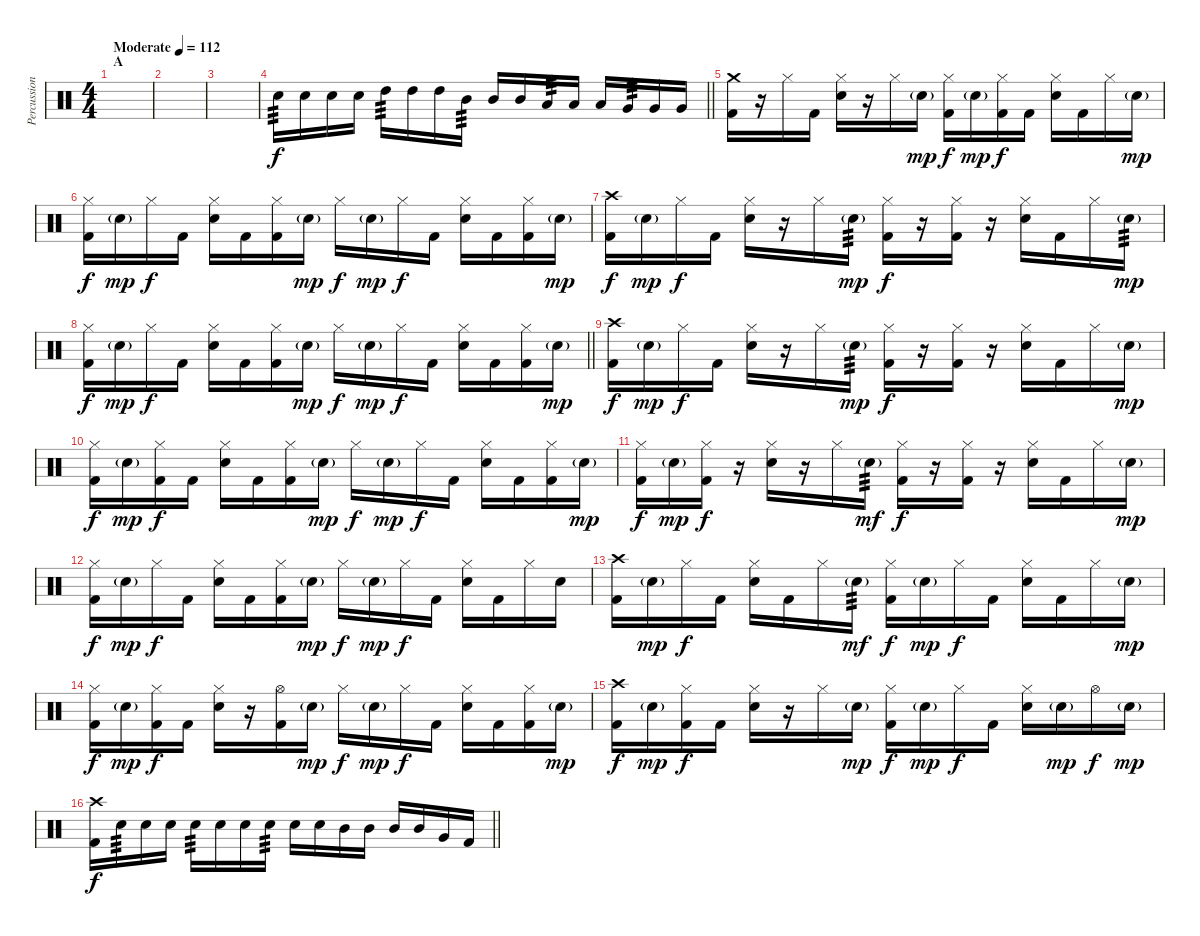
\track ("Percussion" "Percussion") {instrument percussion}
\staff {score}
\articulation defaults
\ts (4 4)
\section ("" "A")
\tempo (112 "Moderate")
\clef neutral
\ks c
|
|
|
\barLineRight lightlight "Snare (hit) 2".16{tp 3} "Snare (hit) 2".16 "Snare (hit) 2".16 "Snare (hit) 2".16 "High Tom (hit)".16{tp 3} "High Tom (hit)".16 "High Tom (hit)".16 "Mid Tom (hit)".16{tp 3} "Mid Tom (hit)".16 "Mid Tom (hit)".16 "Low Tom (hit)".16{tp 3} "Low Tom (hit)".16 "Low Tom (hit)".16 "Very Low Tom (hit)".16{tp 3} "Very Low Tom (hit)".16 "Very Low Tom (hit)".16
|
\section ("" "")
("Crash medium (hit)" "Kick (hit) 2").16 r.16 "Hi-Hat (closed)".16 "Kick (hit) 2".16 ("Hi-Hat (closed)" "Snare (hit) 2").16 r.16 "Hi-Hat (closed)".16 "Snare (hit) 2"{g}.16{dy mp} ("Hi-Hat (closed)" "Kick (hit) 2").16{dy f} "Snare (hit) 2"{g}.16{dy mp} ("Hi-Hat (closed)" "Kick (hit) 2").16{dy f} "Kick (hit) 2".16 ("Hi-Hat (closed)" "Snare (hit) 2").16 "Kick (hit) 2".16 "Hi-Hat (closed)".16 "Snare (hit) 2"{g}.16{dy mp} |
("Hi-Hat (closed)" "Kick (hit) 2").16{dy f} "Snare (hit) 2"{g}.16{dy mp} "Hi-Hat (closed)".16{dy f} "Kick (hit) 2".16 ("Hi-Hat (closed)" "Snare (hit) 2").16 "Kick (hit) 2".16 ("Hi-Hat (closed)" "Kick (hit) 2").16 "Snare (hit) 2"{g}.16{dy mp} "Hi-Hat (closed)".16{dy f} "Snare (hit) 2"{g}.16{dy mp} "Hi-Hat (closed)".16{dy f} "Kick (hit) 2".16 ("Hi-Hat (closed)" "Snare (hit) 2").16 "Kick (hit) 2".16 ("Hi-Hat (closed)" "Kick (hit) 2").16 "Snare (hit) 2"{g}.16{dy mp} |
("Crash high (hit)" "Kick (hit) 2").16{dy f} "Snare (hit) 2"{g}.16{dy mp} "Hi-Hat (closed)".16{dy f} "Kick (hit) 2".16 ("Hi-Hat (closed)" "Snare (hit) 2").16 r.16 "Hi-Hat (closed)".16 "Snare (hit) 2"{g}.16{tp 3 dy mp} ("Hi-Hat (closed)" "Kick (hit) 2").16{dy f} r.16 ("Hi-Hat (closed)" "Kick (hit) 2").16 r.16 ("Hi-Hat (closed)" "Snare (hit) 2").16 "Kick (hit) 2".16 "Hi-Hat (closed)".16 "Snare (hit) 2"{g}.16{tp 3 dy mp} |
\barLineRight lightlight
("Hi-Hat (closed)" "Kick (hit) 2").16{dy f} "Snare (hit) 2"{g}.16{dy mp} "Hi-Hat (closed)".16{dy f} "Kick (hit) 2".16 ("Hi-Hat (closed)" "Snare (hit) 2").16 "Kick (hit) 2".16 ("Hi-Hat (closed)" "Kick (hit) 2").16 "Snare (hit) 2"{g}.16{dy mp} "Hi-Hat (closed)".16{dy f} "Snare (hit) 2"{g}.16{dy mp} "Hi-Hat (closed)".16{dy f} "Kick (hit) 2".16 ("Hi-Hat (closed)" "Snare (hit) 2").16 "Kick (hit) 2".16 ("Hi-Hat (closed)" "Kick (hit) 2").16 "Snare (hit) 2"{g}.16{dy mp} |
\section ("" "")
("Crash high (hit)" "Kick (hit) 2").16{dy f} "Snare (hit) 2"{g}.16{dy mp} "Hi-Hat (closed)".16{dy f} "Kick (hit) 2".16 ("Hi-Hat (closed)" "Snare (hit) 2").16 r.16 "Hi-Hat (closed)".16 "Snare (hit) 2"{g}.16{tp 3 dy mp} ("Hi-Hat (closed)" "Kick (hit) 2").16{dy f} r.16 ("Hi-Hat (closed)" "Kick (hit) 2").16 r.16 ("Hi-Hat (closed)" "Snare (hit) 2").16 "Kick (hit) 2".16 "Hi-Hat (closed)".16 "Snare (hit) 2"{g}.16{dy mp} |
("Hi-Hat (closed)" "Kick (hit) 2").16{dy f} "Snare (hit) 2"{g}.16{dy mp} ("Hi-Hat (closed)" "Kick (hit) 2").16{dy f} "Kick (hit) 2".16 ("Hi-Hat (closed)" "Snare (hit) 2").16 "Kick (hit) 2".16 ("Hi-Hat (closed)" "Kick (hit) 2").16 "Snare (hit) 2"{g}.16{dy mp} "Hi-Hat (closed)".16{dy f} "Snare (hit) 2"{g}.16{dy mp} "Hi-Hat (closed)".16{dy f} "Kick (hit) 2".16 ("Hi-Hat (closed)" "Snare (hit) 2").16 "Kick (hit) 2".16 ("Hi-Hat (closed)" "Kick (hit) 2").16 "Snare (hit) 2"{g}.16{dy mp} |
("Hi-Hat (closed)" "Kick (hit) 2").16{dy f} "Snare (hit) 2"{g}.16{dy mp} ("Hi-Hat (closed)" "Kick (hit) 2").16{dy f} r.16 ("Hi-Hat (closed)" "Snare (hit) 2").16 r.16 "Hi-Hat (closed)".16 "Snare (hit) 2"{g}.16{tp 3 dy mf} ("Hi-Hat (closed)" "Kick (hit) 2").16{dy f} r.16 ("Hi-Hat (closed)" "Kick (hit) 2").16 r.16 ("Hi-Hat (closed)" "Snare (hit) 2").16 "Kick (hit) 2".16 "Hi-Hat (closed)".16 "Snare (hit) 2"{g}.16{dy mp} |
("Hi-Hat (closed)" "Kick (hit) 2").16{dy f} "Snare (hit) 2"{g}.16{dy mp} "Hi-Hat (closed)".16{dy f} "Kick (hit) 2".16 ("Hi-Hat (closed)" "Snare (hit) 2").16 "Kick (hit) 2".16 ("Hi-Hat (closed)" "Kick (hit) 2").16 "Snare (hit) 2"{g}.16{dy mp} "Hi-Hat (closed)".16{dy f} "Snare (hit) 2"{g}.16{dy mp} "Hi-Hat (closed)".16{dy f} "Kick (hit) 2".16 ("Hi-Hat (closed)" "Snare (hit) 2").16 "Kick (hit) 2".16 "Hi-Hat (closed)".16 "Snare (hit) 2".16 |
("Crash high (hit)" "Kick (hit) 2").16 "Snare (hit) 2"{g}.16{dy mp} "Hi-Hat (closed)".16{dy f} "Kick (hit) 2".16 ("Hi-Hat (closed)" "Snare (hit) 2").16 "Kick (hit) 2".16 "Hi-Hat (closed)".16 "Snare (hit) 2"{g}.16{tp 3 dy mf} ("Hi-Hat (closed)" "Kick (hit) 2").16{dy f} "Snare (hit) 2"{g}.16{dy mp} "Hi-Hat (closed)".16{dy f} "Kick (hit) 2".16 ("Hi-Hat (closed)" "Snare (hit) 2").16 "Kick (hit) 2".16 "Hi-Hat (closed)".16 "Snare (hit) 2"{g}.16{dy mp} |
("Hi-Hat (closed)" "Kick (hit) 2").16{dy f} "Snare (hit) 2"{g}.16{dy mp} ("Hi-Hat (closed)" "Kick (hit) 2").16{dy f} "Kick (hit) 2".16 ("Hi-Hat (closed)" "Snare (hit) 2").16 r.16 ("Hi-Hat (open)" "Kick (hit) 2").16 "Snare (hit) 2"{g}.16{dy mp} "Hi-Hat (closed)".16{dy f} "Snare (hit) 2"{g}.16{dy mp} "Hi-Hat (closed)".16{dy f} "Kick (hit) 2".16 ("Hi-Hat (closed)" "Snare (hit) 2").16 "Kick (hit) 2".16 ("Hi-Hat (closed)" "Kick (hit) 2").16 "Snare (hit) 2"{g}.16{dy mp} |
("Crash high (hit)" "Kick (hit) 2").16{dy f} "Snare (hit) 2"{g}.16{dy mp} ("Hi-Hat (closed)" "Kick (hit) 2").16{dy f} "Kick (hit) 2".16 ("Hi-Hat (closed)" "Snare (hit) 2").16 r.16 "Hi-Hat (closed)".16 "Snare (hit) 2"{g}.16{dy mp} ("Hi-Hat (closed)" "Kick (hit) 2").16{dy f} "Snare (hit) 2"{g}.16{dy mp} "Hi-Hat (closed)".16{dy f} "Kick (hit) 2".16 ("Hi-Hat (closed)" "Snare (hit) 2").16 "Snare (hit) 2"{g}.16{dy mp} "Hi-Hat (open)".16{dy f} "Snare (hit) 2"{g}.16{dy mp} |
\barLineRight lightlight
("Crash high (hit)" "Kick (hit) 2").16{dy f} "Snare (hit) 2".16{tp 3} "Snare (hit) 2".16 "Snare (hit) 2".16 "Snare (hit) 2".16{tp 3} "Snare (hit) 2".16 "Snare (hit) 2".16 "Snare (hit) 2".16{tp 3} "Snare (hit) 2".16 "Snare (hit) 2".16 "Mid Tom (hit)".16 "Mid Tom (hit)".16 "Mid Tom (hit)".16 "Mid Tom (hit)".16 "Very Low Tom (hit)".16 "Kick (hit) 2".16
